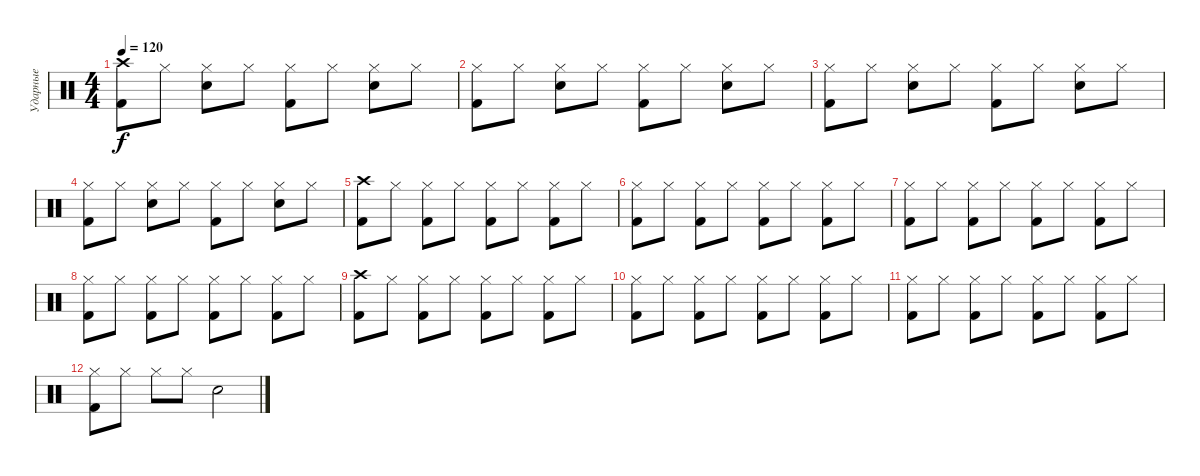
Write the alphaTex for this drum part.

\track ("Ударные" "Ударные") {instrument percussion}
\staff {score}
\articulation defaults
\ts (4 4)
\tempo 120
\clef neutral
\ks c
("Crash high (hit)" "Kick (hit) 2").8{dy f} "Hi-Hat (closed)".8 ("Hi-Hat (closed)" "Electric Snare (hit)").8 "Hi-Hat (closed)".8 ("Hi-Hat (closed)" "Kick (hit) 2").8 "Hi-Hat (closed)".8 ("Hi-Hat (closed)" "Electric Snare (hit)").8 "Hi-Hat (closed)".8 |
("Hi-Hat (closed)" "Kick (hit) 2").8 "Hi-Hat (closed)".8 ("Hi-Hat (closed)" "Electric Snare (hit)").8 "Hi-Hat (closed)".8 ("Hi-Hat (closed)" "Kick (hit) 2").8 "Hi-Hat (closed)".8 ("Hi-Hat (closed)" "Electric Snare (hit)").8 "Hi-Hat (closed)".8 |
("Hi-Hat (closed)" "Kick (hit) 2").8 "Hi-Hat (closed)".8 ("Hi-Hat (closed)" "Electric Snare (hit)").8 "Hi-Hat (closed)".8 ("Hi-Hat (closed)" "Kick (hit) 2").8 "Hi-Hat (closed)".8 ("Hi-Hat (closed)" "Electric Snare (hit)").8 "Hi-Hat (closed)".8 |
("Hi-Hat (closed)" "Kick (hit) 2").8 "Hi-Hat (closed)".8 ("Hi-Hat (closed)" "Electric Snare (hit)").8 "Hi-Hat (closed)".8 ("Hi-Hat (closed)" "Kick (hit) 2").8 "Hi-Hat (closed)".8 ("Hi-Hat (closed)" "Electric Snare (hit)").8 "Hi-Hat (closed)".8 |
("Crash high (hit)" "Kick (hit) 2").8 "Hi-Hat (closed)".8 ("Hi-Hat (closed)" "Kick (hit) 2").8 "Hi-Hat (closed)".8 ("Hi-Hat (closed)" "Kick (hit) 2").8 "Hi-Hat (closed)".8 ("Hi-Hat (closed)" "Kick (hit) 2").8 "Hi-Hat (closed)".8 |
("Hi-Hat (closed)" "Kick (hit) 2").8 "Hi-Hat (closed)".8 ("Hi-Hat (closed)" "Kick (hit) 2").8 "Hi-Hat (closed)".8 ("Hi-Hat (closed)" "Kick (hit) 2").8 "Hi-Hat (closed)".8 ("Hi-Hat (closed)" "Kick (hit) 2").8 "Hi-Hat (closed)".8 |
("Hi-Hat (closed)" "Kick (hit) 2").8 "Hi-Hat (closed)".8 ("Hi-Hat (closed)" "Kick (hit) 2").8 "Hi-Hat (closed)".8 ("Hi-Hat (closed)" "Kick (hit) 2").8 "Hi-Hat (closed)".8 ("Hi-Hat (closed)" "Kick (hit) 2").8 "Hi-Hat (closed)".8 |
("Hi-Hat (closed)" "Kick (hit) 2").8 "Hi-Hat (closed)".8 ("Hi-Hat (closed)" "Kick (hit) 2").8 "Hi-Hat (closed)".8 ("Hi-Hat (closed)" "Kick (hit) 2").8 "Hi-Hat (closed)".8 ("Hi-Hat (closed)" "Kick (hit) 2").8 "Hi-Hat (closed)".8 |
("Crash high (hit)" "Kick (hit) 2").8 "Hi-Hat (closed)".8 ("Hi-Hat (closed)" "Kick (hit) 2").8 "Hi-Hat (closed)".8 ("Hi-Hat (closed)" "Kick (hit) 2").8 "Hi-Hat (closed)".8 ("Hi-Hat (closed)" "Kick (hit) 2").8 "Hi-Hat (closed)".8 |
("Hi-Hat (closed)" "Kick (hit) 2").8 "Hi-Hat (closed)".8 ("Hi-Hat (closed)" "Kick (hit) 2").8 "Hi-Hat (closed)".8 ("Hi-Hat (closed)" "Kick (hit) 2").8 "Hi-Hat (closed)".8 ("Hi-Hat (closed)" "Kick (hit) 2").8 "Hi-Hat (closed)".8 |
("Hi-Hat (closed)" "Kick (hit) 2").8 "Hi-Hat (closed)".8 ("Hi-Hat (closed)" "Kick (hit) 2").8 "Hi-Hat (closed)".8 ("Hi-Hat (closed)" "Kick (hit) 2").8 "Hi-Hat (closed)".8 ("Hi-Hat (closed)" "Kick (hit) 2").8 "Hi-Hat (closed)".8 |
("Hi-Hat (closed)" "Kick (hit) 2").8 "Hi-Hat (closed)".8 "Hi-Hat (closed)".8 "Hi-Hat (closed)".8 "Electric Snare (hit)".2
